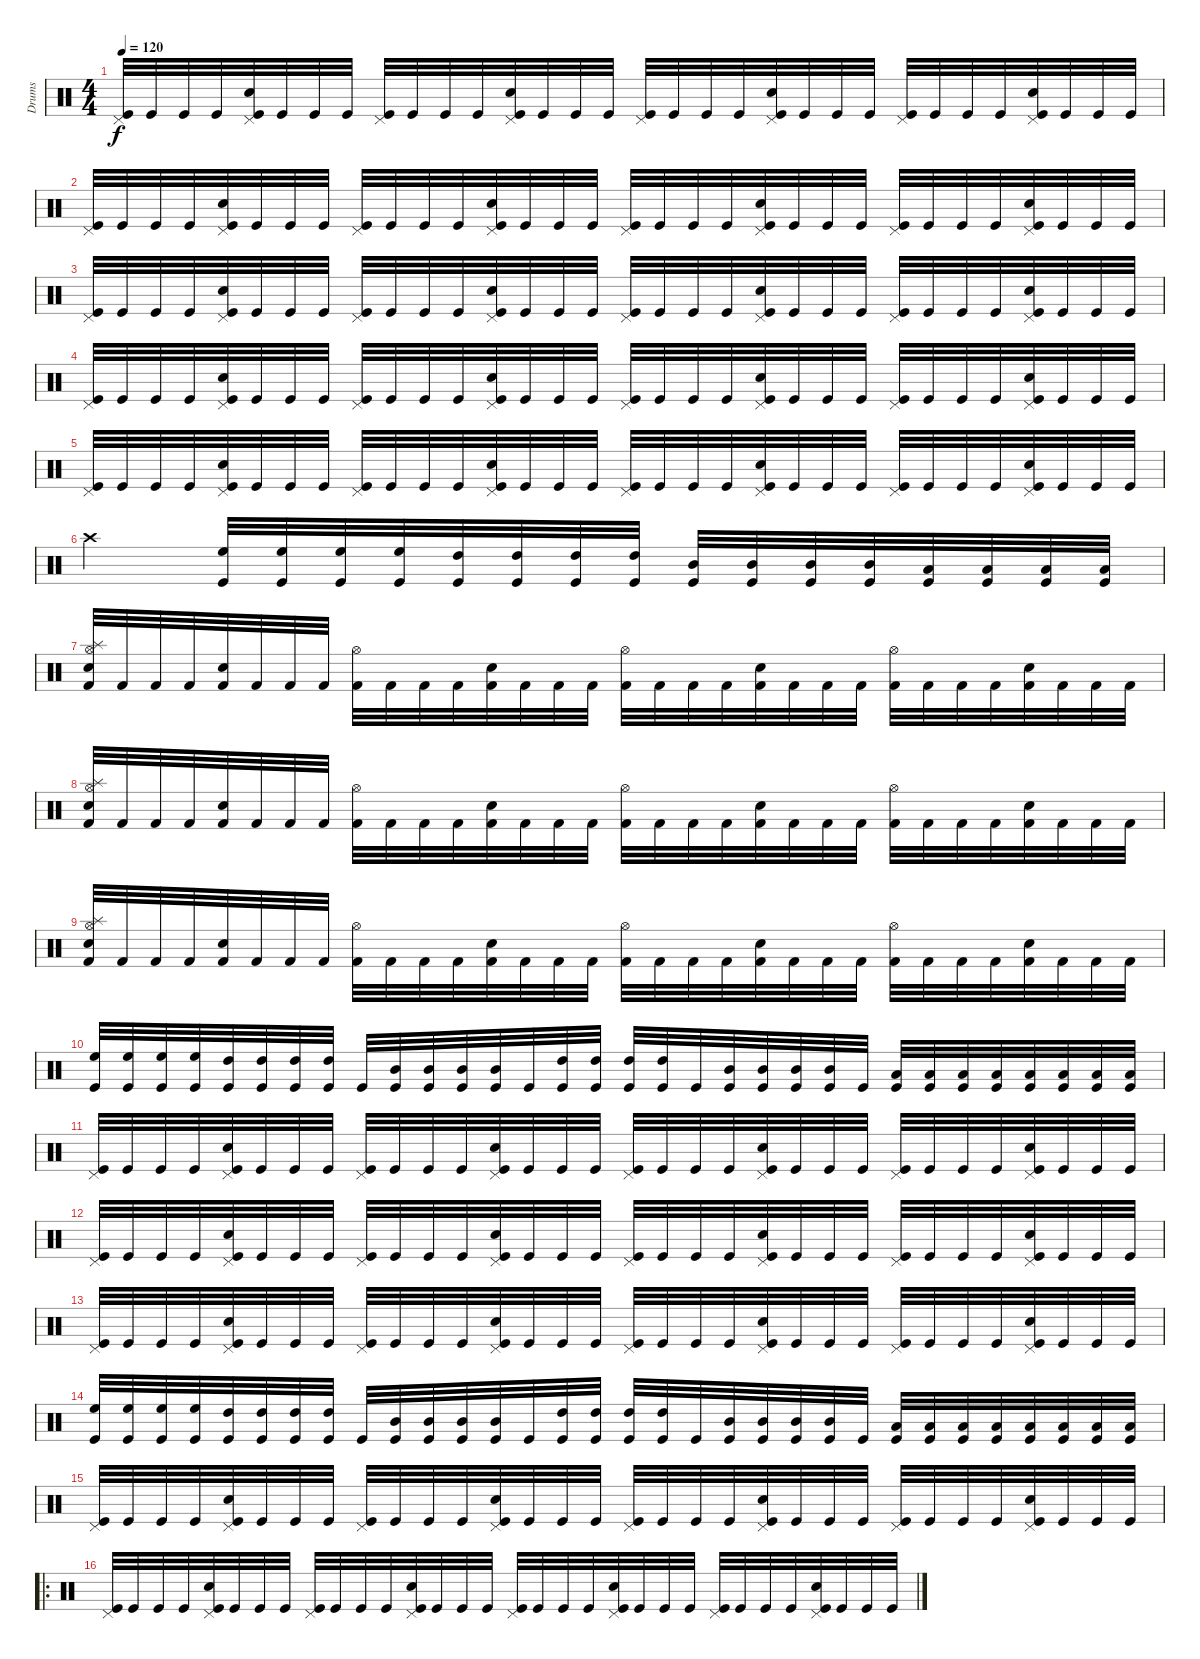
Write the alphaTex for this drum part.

\track ("Drums" "Drums") {instrument percussion}
\staff {score}
\articulation defaults
\ts (4 4)
\tempo 120
\clef neutral
\ks c
("Kick (hit)" "Pedal Hi-Hat (hit)").32{dy f} "Kick (hit)".32 "Kick (hit)".32 "Kick (hit)".32 ("Kick (hit)" "Snare (hit) 2" "Pedal Hi-Hat (hit)").32 "Kick (hit)".32 "Kick (hit)".32 "Kick (hit)".32 ("Kick (hit)" "Pedal Hi-Hat (hit)").32 "Kick (hit)".32 "Kick (hit)".32 "Kick (hit)".32 ("Kick (hit)" "Snare (hit) 2" "Pedal Hi-Hat (hit)").32 "Kick (hit)".32 "Kick (hit)".32 "Kick (hit)".32 ("Kick (hit)" "Pedal Hi-Hat (hit)").32 "Kick (hit)".32 "Kick (hit)".32 "Kick (hit)".32 ("Kick (hit)" "Snare (hit) 2" "Pedal Hi-Hat (hit)").32 "Kick (hit)".32 "Kick (hit)".32 "Kick (hit)".32 ("Kick (hit)" "Pedal Hi-Hat (hit)").32 "Kick (hit)".32 "Kick (hit)".32 "Kick (hit)".32 ("Kick (hit)" "Snare (hit) 2" "Pedal Hi-Hat (hit)").32 "Kick (hit)".32 "Kick (hit)".32 "Kick (hit)".32 |
("Kick (hit)" "Pedal Hi-Hat (hit)").32 "Kick (hit)".32 "Kick (hit)".32 "Kick (hit)".32 ("Kick (hit)" "Snare (hit) 2" "Pedal Hi-Hat (hit)").32 "Kick (hit)".32 "Kick (hit)".32 "Kick (hit)".32 ("Kick (hit)" "Pedal Hi-Hat (hit)").32 "Kick (hit)".32 "Kick (hit)".32 "Kick (hit)".32 ("Kick (hit)" "Snare (hit) 2" "Pedal Hi-Hat (hit)").32 "Kick (hit)".32 "Kick (hit)".32 "Kick (hit)".32 ("Kick (hit)" "Pedal Hi-Hat (hit)").32 "Kick (hit)".32 "Kick (hit)".32 "Kick (hit)".32 ("Kick (hit)" "Snare (hit) 2" "Pedal Hi-Hat (hit)").32 "Kick (hit)".32 "Kick (hit)".32 "Kick (hit)".32 ("Kick (hit)" "Pedal Hi-Hat (hit)").32 "Kick (hit)".32 "Kick (hit)".32 "Kick (hit)".32 ("Kick (hit)" "Snare (hit) 2" "Pedal Hi-Hat (hit)").32 "Kick (hit)".32 "Kick (hit)".32 "Kick (hit)".32 |
("Kick (hit)" "Pedal Hi-Hat (hit)").32 "Kick (hit)".32 "Kick (hit)".32 "Kick (hit)".32 ("Kick (hit)" "Snare (hit) 2" "Pedal Hi-Hat (hit)").32 "Kick (hit)".32 "Kick (hit)".32 "Kick (hit)".32 ("Kick (hit)" "Pedal Hi-Hat (hit)").32 "Kick (hit)".32 "Kick (hit)".32 "Kick (hit)".32 ("Kick (hit)" "Snare (hit) 2" "Pedal Hi-Hat (hit)").32 "Kick (hit)".32 "Kick (hit)".32 "Kick (hit)".32 ("Kick (hit)" "Pedal Hi-Hat (hit)").32 "Kick (hit)".32 "Kick (hit)".32 "Kick (hit)".32 ("Kick (hit)" "Snare (hit) 2" "Pedal Hi-Hat (hit)").32 "Kick (hit)".32 "Kick (hit)".32 "Kick (hit)".32 ("Kick (hit)" "Pedal Hi-Hat (hit)").32 "Kick (hit)".32 "Kick (hit)".32 "Kick (hit)".32 ("Kick (hit)" "Snare (hit) 2" "Pedal Hi-Hat (hit)").32 "Kick (hit)".32 "Kick (hit)".32 "Kick (hit)".32 |
("Kick (hit)" "Pedal Hi-Hat (hit)").32 "Kick (hit)".32 "Kick (hit)".32 "Kick (hit)".32 ("Kick (hit)" "Snare (hit) 2" "Pedal Hi-Hat (hit)").32 "Kick (hit)".32 "Kick (hit)".32 "Kick (hit)".32 ("Kick (hit)" "Pedal Hi-Hat (hit)").32 "Kick (hit)".32 "Kick (hit)".32 "Kick (hit)".32 ("Kick (hit)" "Snare (hit) 2" "Pedal Hi-Hat (hit)").32 "Kick (hit)".32 "Kick (hit)".32 "Kick (hit)".32 ("Kick (hit)" "Pedal Hi-Hat (hit)").32 "Kick (hit)".32 "Kick (hit)".32 "Kick (hit)".32 ("Kick (hit)" "Snare (hit) 2" "Pedal Hi-Hat (hit)").32 "Kick (hit)".32 "Kick (hit)".32 "Kick (hit)".32 ("Kick (hit)" "Pedal Hi-Hat (hit)").32 "Kick (hit)".32 "Kick (hit)".32 "Kick (hit)".32 ("Kick (hit)" "Snare (hit) 2" "Pedal Hi-Hat (hit)").32 "Kick (hit)".32 "Kick (hit)".32 "Kick (hit)".32 |
("Kick (hit)" "Pedal Hi-Hat (hit)").32 "Kick (hit)".32 "Kick (hit)".32 "Kick (hit)".32 ("Kick (hit)" "Snare (hit) 2" "Pedal Hi-Hat (hit)").32 "Kick (hit)".32 "Kick (hit)".32 "Kick (hit)".32 ("Kick (hit)" "Pedal Hi-Hat (hit)").32 "Kick (hit)".32 "Kick (hit)".32 "Kick (hit)".32 ("Kick (hit)" "Snare (hit) 2" "Pedal Hi-Hat (hit)").32 "Kick (hit)".32 "Kick (hit)".32 "Kick (hit)".32 ("Kick (hit)" "Pedal Hi-Hat (hit)").32 "Kick (hit)".32 "Kick (hit)".32 "Kick (hit)".32 ("Kick (hit)" "Snare (hit) 2" "Pedal Hi-Hat (hit)").32 "Kick (hit)".32 "Kick (hit)".32 "Kick (hit)".32 ("Kick (hit)" "Pedal Hi-Hat (hit)").32 "Kick (hit)".32 "Kick (hit)".32 "Kick (hit)".32 ("Kick (hit)" "Snare (hit) 2" "Pedal Hi-Hat (hit)").32 "Kick (hit)".32 "Kick (hit)".32 "Kick (hit)".32 |
"Crash high (hit)".2 ("Kick (hit)" "High Floor Tom (hit)").32 ("Kick (hit)" "High Floor Tom (hit)").32 ("Kick (hit)" "High Floor Tom (hit)").32 ("Kick (hit)" "High Floor Tom (hit)").32 ("Kick (hit)" "High Tom (hit)").32 ("Kick (hit)" "High Tom (hit)").32 ("Kick (hit)" "High Tom (hit)").32 ("Kick (hit)" "High Tom (hit)").32 ("Kick (hit)" "Mid Tom (hit)").32 ("Kick (hit)" "Mid Tom (hit)").32 ("Kick (hit)" "Mid Tom (hit)").32 ("Kick (hit)" "Mid Tom (hit)").32 ("Kick (hit)" "Low Tom (hit)").32 ("Kick (hit)" "Low Tom (hit)").32 ("Kick (hit)" "Low Tom (hit)").32 ("Kick (hit)" "Low Tom (hit)").32 |
("Snare (hit) 2" "Splash (hit)" "Hi-Hat (open)" "Kick (hit) 2").32 "Kick (hit) 2".32 "Kick (hit) 2".32 "Kick (hit) 2".32 ("Snare (hit) 2" "Kick (hit) 2").32 "Kick (hit) 2".32 "Kick (hit) 2".32 "Kick (hit) 2".32 ("Hi-Hat (open)" "Kick (hit) 2").32 "Kick (hit) 2".32 "Kick (hit) 2".32 "Kick (hit) 2".32 ("Snare (hit) 2" "Kick (hit) 2").32 "Kick (hit) 2".32 "Kick (hit) 2".32 "Kick (hit) 2".32 ("Hi-Hat (open)" "Kick (hit) 2").32 "Kick (hit) 2".32 "Kick (hit) 2".32 "Kick (hit) 2".32 ("Snare (hit) 2" "Kick (hit) 2").32 "Kick (hit) 2".32 "Kick (hit) 2".32 "Kick (hit) 2".32 ("Hi-Hat (open)" "Kick (hit) 2").32 "Kick (hit) 2".32 "Kick (hit) 2".32 "Kick (hit) 2".32 ("Snare (hit) 2" "Kick (hit) 2").32 "Kick (hit) 2".32 "Kick (hit) 2".32 "Kick (hit) 2".32 |
("Snare (hit) 2" "Splash (hit)" "Hi-Hat (open)" "Kick (hit) 2").32 "Kick (hit) 2".32 "Kick (hit) 2".32 "Kick (hit) 2".32 ("Snare (hit) 2" "Kick (hit) 2").32 "Kick (hit) 2".32 "Kick (hit) 2".32 "Kick (hit) 2".32 ("Hi-Hat (open)" "Kick (hit) 2").32 "Kick (hit) 2".32 "Kick (hit) 2".32 "Kick (hit) 2".32 ("Snare (hit) 2" "Kick (hit) 2").32 "Kick (hit) 2".32 "Kick (hit) 2".32 "Kick (hit) 2".32 ("Hi-Hat (open)" "Kick (hit) 2").32 "Kick (hit) 2".32 "Kick (hit) 2".32 "Kick (hit) 2".32 ("Snare (hit) 2" "Kick (hit) 2").32 "Kick (hit) 2".32 "Kick (hit) 2".32 "Kick (hit) 2".32 ("Hi-Hat (open)" "Kick (hit) 2").32 "Kick (hit) 2".32 "Kick (hit) 2".32 "Kick (hit) 2".32 ("Snare (hit) 2" "Kick (hit) 2").32 "Kick (hit) 2".32 "Kick (hit) 2".32 "Kick (hit) 2".32 |
("Snare (hit) 2" "Splash (hit)" "Hi-Hat (open)" "Kick (hit) 2").32 "Kick (hit) 2".32 "Kick (hit) 2".32 "Kick (hit) 2".32 ("Snare (hit) 2" "Kick (hit) 2").32 "Kick (hit) 2".32 "Kick (hit) 2".32 "Kick (hit) 2".32 ("Hi-Hat (open)" "Kick (hit) 2").32 "Kick (hit) 2".32 "Kick (hit) 2".32 "Kick (hit) 2".32 ("Snare (hit) 2" "Kick (hit) 2").32 "Kick (hit) 2".32 "Kick (hit) 2".32 "Kick (hit) 2".32 ("Hi-Hat (open)" "Kick (hit) 2").32 "Kick (hit) 2".32 "Kick (hit) 2".32 "Kick (hit) 2".32 ("Snare (hit) 2" "Kick (hit) 2").32 "Kick (hit) 2".32 "Kick (hit) 2".32 "Kick (hit) 2".32 ("Hi-Hat (open)" "Kick (hit) 2").32 "Kick (hit) 2".32 "Kick (hit) 2".32 "Kick (hit) 2".32 ("Snare (hit) 2" "Kick (hit) 2").32 "Kick (hit) 2".32 "Kick (hit) 2".32 "Kick (hit) 2".32 |
("Kick (hit)" "High Floor Tom (hit)").32 ("Kick (hit)" "High Floor Tom (hit)").32 ("Kick (hit)" "High Floor Tom (hit)").32 ("Kick (hit)" "High Floor Tom (hit)").32 ("Kick (hit)" "High Tom (hit)").32 ("Kick (hit)" "High Tom (hit)").32 ("Kick (hit)" "High Tom (hit)").32 ("Kick (hit)" "High Tom (hit)").32 "Kick (hit)".32 ("Kick (hit)" "Mid Tom (hit)").32 ("Kick (hit)" "Mid Tom (hit)").32 ("Kick (hit)" "Mid Tom (hit)").32 ("Kick (hit)" "Mid Tom (hit)").32 "Kick (hit)".32 ("Kick (hit)" "High Tom (hit)").32 ("Kick (hit)" "High Tom (hit)").32 ("Kick (hit)" "High Tom (hit)").32 ("Kick (hit)" "High Tom (hit)").32 "Kick (hit)".32 ("Kick (hit)" "Mid Tom (hit)").32 ("Kick (hit)" "Mid Tom (hit)").32 ("Kick (hit)" "Mid Tom (hit)").32 ("Kick (hit)" "Mid Tom (hit)").32 "Kick (hit)".32 ("Kick (hit)" "Low Tom (hit)").32 ("Kick (hit)" "Low Tom (hit)").32 ("Kick (hit)" "Low Tom (hit)").32 ("Kick (hit)" "Low Tom (hit)").32 ("Kick (hit)" "Low Tom (hit)").32 ("Kick (hit)" "Low Tom (hit)").32 ("Kick (hit)" "Low Tom (hit)").32 ("Kick (hit)" "Low Tom (hit)").32 |
("Kick (hit)" "Pedal Hi-Hat (hit)").32 "Kick (hit)".32 "Kick (hit)".32 "Kick (hit)".32 ("Kick (hit)" "Snare (hit) 2" "Pedal Hi-Hat (hit)").32 "Kick (hit)".32 "Kick (hit)".32 "Kick (hit)".32 ("Kick (hit)" "Pedal Hi-Hat (hit)").32 "Kick (hit)".32 "Kick (hit)".32 "Kick (hit)".32 ("Kick (hit)" "Snare (hit) 2" "Pedal Hi-Hat (hit)").32 "Kick (hit)".32 "Kick (hit)".32 "Kick (hit)".32 ("Kick (hit)" "Pedal Hi-Hat (hit)").32 "Kick (hit)".32 "Kick (hit)".32 "Kick (hit)".32 ("Kick (hit)" "Snare (hit) 2" "Pedal Hi-Hat (hit)").32 "Kick (hit)".32 "Kick (hit)".32 "Kick (hit)".32 ("Kick (hit)" "Pedal Hi-Hat (hit)").32 "Kick (hit)".32 "Kick (hit)".32 "Kick (hit)".32 ("Kick (hit)" "Snare (hit) 2" "Pedal Hi-Hat (hit)").32 "Kick (hit)".32 "Kick (hit)".32 "Kick (hit)".32 |
("Kick (hit)" "Pedal Hi-Hat (hit)").32 "Kick (hit)".32 "Kick (hit)".32 "Kick (hit)".32 ("Kick (hit)" "Snare (hit) 2" "Pedal Hi-Hat (hit)").32 "Kick (hit)".32 "Kick (hit)".32 "Kick (hit)".32 ("Kick (hit)" "Pedal Hi-Hat (hit)").32 "Kick (hit)".32 "Kick (hit)".32 "Kick (hit)".32 ("Kick (hit)" "Snare (hit) 2" "Pedal Hi-Hat (hit)").32 "Kick (hit)".32 "Kick (hit)".32 "Kick (hit)".32 ("Kick (hit)" "Pedal Hi-Hat (hit)").32 "Kick (hit)".32 "Kick (hit)".32 "Kick (hit)".32 ("Kick (hit)" "Snare (hit) 2" "Pedal Hi-Hat (hit)").32 "Kick (hit)".32 "Kick (hit)".32 "Kick (hit)".32 ("Kick (hit)" "Pedal Hi-Hat (hit)").32 "Kick (hit)".32 "Kick (hit)".32 "Kick (hit)".32 ("Kick (hit)" "Snare (hit) 2" "Pedal Hi-Hat (hit)").32 "Kick (hit)".32 "Kick (hit)".32 "Kick (hit)".32 |
("Kick (hit)" "Pedal Hi-Hat (hit)").32 "Kick (hit)".32 "Kick (hit)".32 "Kick (hit)".32 ("Kick (hit)" "Snare (hit) 2" "Pedal Hi-Hat (hit)").32 "Kick (hit)".32 "Kick (hit)".32 "Kick (hit)".32 ("Kick (hit)" "Pedal Hi-Hat (hit)").32 "Kick (hit)".32 "Kick (hit)".32 "Kick (hit)".32 ("Kick (hit)" "Snare (hit) 2" "Pedal Hi-Hat (hit)").32 "Kick (hit)".32 "Kick (hit)".32 "Kick (hit)".32 ("Kick (hit)" "Pedal Hi-Hat (hit)").32 "Kick (hit)".32 "Kick (hit)".32 "Kick (hit)".32 ("Kick (hit)" "Snare (hit) 2" "Pedal Hi-Hat (hit)").32 "Kick (hit)".32 "Kick (hit)".32 "Kick (hit)".32 ("Kick (hit)" "Pedal Hi-Hat (hit)").32 "Kick (hit)".32 "Kick (hit)".32 "Kick (hit)".32 ("Kick (hit)" "Snare (hit) 2" "Pedal Hi-Hat (hit)").32 "Kick (hit)".32 "Kick (hit)".32 "Kick (hit)".32 |
("Kick (hit)" "High Floor Tom (hit)").32 ("Kick (hit)" "High Floor Tom (hit)").32 ("Kick (hit)" "High Floor Tom (hit)").32 ("Kick (hit)" "High Floor Tom (hit)").32 ("Kick (hit)" "High Tom (hit)").32 ("Kick (hit)" "High Tom (hit)").32 ("Kick (hit)" "High Tom (hit)").32 ("Kick (hit)" "High Tom (hit)").32 "Kick (hit)".32 ("Kick (hit)" "Mid Tom (hit)").32 ("Kick (hit)" "Mid Tom (hit)").32 ("Kick (hit)" "Mid Tom (hit)").32 ("Kick (hit)" "Mid Tom (hit)").32 "Kick (hit)".32 ("Kick (hit)" "High Tom (hit)").32 ("Kick (hit)" "High Tom (hit)").32 ("Kick (hit)" "High Tom (hit)").32 ("Kick (hit)" "High Tom (hit)").32 "Kick (hit)".32 ("Kick (hit)" "Mid Tom (hit)").32 ("Kick (hit)" "Mid Tom (hit)").32 ("Kick (hit)" "Mid Tom (hit)").32 ("Kick (hit)" "Mid Tom (hit)").32 "Kick (hit)".32 ("Kick (hit)" "Low Tom (hit)").32 ("Kick (hit)" "Low Tom (hit)").32 ("Kick (hit)" "Low Tom (hit)").32 ("Kick (hit)" "Low Tom (hit)").32 ("Kick (hit)" "Low Tom (hit)").32 ("Kick (hit)" "Low Tom (hit)").32 ("Kick (hit)" "Low Tom (hit)").32 ("Kick (hit)" "Low Tom (hit)").32 |
("Kick (hit)" "Pedal Hi-Hat (hit)").32 "Kick (hit)".32 "Kick (hit)".32 "Kick (hit)".32 ("Kick (hit)" "Snare (hit) 2" "Pedal Hi-Hat (hit)").32 "Kick (hit)".32 "Kick (hit)".32 "Kick (hit)".32 ("Kick (hit)" "Pedal Hi-Hat (hit)").32 "Kick (hit)".32 "Kick (hit)".32 "Kick (hit)".32 ("Kick (hit)" "Snare (hit) 2" "Pedal Hi-Hat (hit)").32 "Kick (hit)".32 "Kick (hit)".32 "Kick (hit)".32 ("Kick (hit)" "Pedal Hi-Hat (hit)").32 "Kick (hit)".32 "Kick (hit)".32 "Kick (hit)".32 ("Kick (hit)" "Snare (hit) 2" "Pedal Hi-Hat (hit)").32 "Kick (hit)".32 "Kick (hit)".32 "Kick (hit)".32 ("Kick (hit)" "Pedal Hi-Hat (hit)").32 "Kick (hit)".32 "Kick (hit)".32 "Kick (hit)".32 ("Kick (hit)" "Snare (hit) 2" "Pedal Hi-Hat (hit)").32 "Kick (hit)".32 "Kick (hit)".32 "Kick (hit)".32 |
\ro
("Kick (hit)" "Pedal Hi-Hat (hit)").32 "Kick (hit)".32 "Kick (hit)".32 "Kick (hit)".32 ("Kick (hit)" "Snare (hit) 2" "Pedal Hi-Hat (hit)").32 "Kick (hit)".32 "Kick (hit)".32 "Kick (hit)".32 ("Kick (hit)" "Pedal Hi-Hat (hit)").32 "Kick (hit)".32 "Kick (hit)".32 "Kick (hit)".32 ("Kick (hit)" "Snare (hit) 2" "Pedal Hi-Hat (hit)").32 "Kick (hit)".32 "Kick (hit)".32 "Kick (hit)".32 ("Kick (hit)" "Pedal Hi-Hat (hit)").32 "Kick (hit)".32 "Kick (hit)".32 "Kick (hit)".32 ("Kick (hit)" "Snare (hit) 2" "Pedal Hi-Hat (hit)").32 "Kick (hit)".32 "Kick (hit)".32 "Kick (hit)".32 ("Kick (hit)" "Pedal Hi-Hat (hit)").32 "Kick (hit)".32 "Kick (hit)".32 "Kick (hit)".32 ("Kick (hit)" "Snare (hit) 2" "Pedal Hi-Hat (hit)").32 "Kick (hit)".32 "Kick (hit)".32 "Kick (hit)".32
